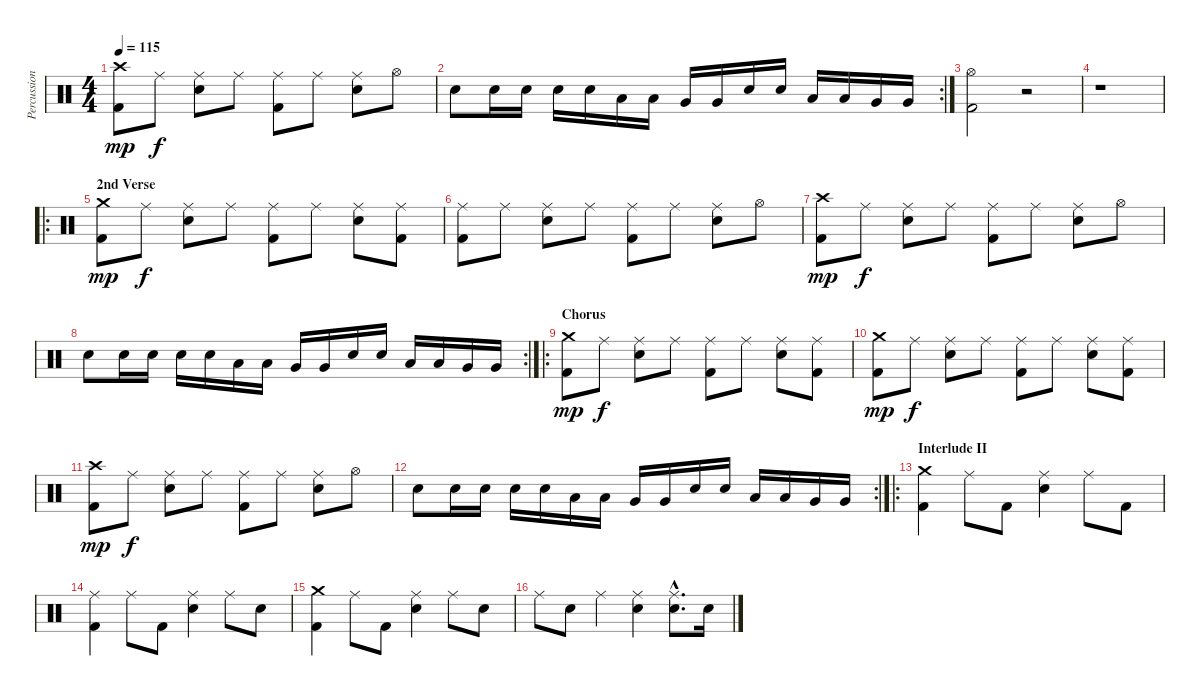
\track ("Percussion" "Percussion") {instrument percussion}
\staff {score}
\articulation defaults
\ts (4 4)
\tempo 115
\clef neutral
\ks c
("Kick (hit) 2" "Crash high (hit)").8{dy mp} "Ride (middle)".8{dy f} ("Electric Snare (hit)" "Ride (middle)").8 "Ride (middle)".8 ("Kick (hit) 2" "Ride (middle)").8 "Ride (middle)".8 ("Electric Snare (hit)" "Ride (middle)").8 "Hi-Hat (open)".8 |
\rc 2 "Electric Snare (hit)".8 "Electric Snare (hit)".16 "Electric Snare (hit)".16 "Electric Snare (hit)".16 "Electric Snare (hit)".16 "Low Tom (hit)".16 "Low Tom (hit)".16 "Very Low Tom (hit)".16 "Very Low Tom (hit)".16 "Electric Snare (hit)".16 "Electric Snare (hit)".16 "Low Tom (hit)".16 "Low Tom (hit)".16 "Very Low Tom (hit)".16 "Very Low Tom (hit)".16
|
("Kick (hit) 2" "Hi-Hat (open)").2 r.2 |
r.1 |
\ro
\section ("" "2nd Verse")
("Kick (hit) 2" "Crash medium (hit)").8{dy mp} "Ride (middle)".8{dy f} ("Electric Snare (hit)" "Ride (middle)").8 "Ride (middle)".8 ("Kick (hit) 2" "Ride (middle)").8 "Ride (middle)".8 ("Electric Snare (hit)" "Ride (middle)").8 ("Kick (hit) 2" "Ride (middle)").8 |
("Kick (hit) 2" "Ride (middle)").8 "Ride (middle)".8 ("Electric Snare (hit)" "Ride (middle)").8 "Ride (middle)".8 ("Kick (hit) 2" "Ride (middle)").8 "Ride (middle)".8 ("Electric Snare (hit)" "Ride (middle)").8 "Hi-Hat (open)".8 |
("Kick (hit) 2" "Crash high (hit)").8{dy mp} "Ride (middle)".8{dy f} ("Electric Snare (hit)" "Ride (middle)").8 "Ride (middle)".8 ("Kick (hit) 2" "Ride (middle)").8 "Ride (middle)".8 ("Electric Snare (hit)" "Ride (middle)").8 "Hi-Hat (open)".8 |
\rc 2 "Electric Snare (hit)".8 "Electric Snare (hit)".16 "Electric Snare (hit)".16 "Electric Snare (hit)".16 "Electric Snare (hit)".16 "Low Tom (hit)".16 "Low Tom (hit)".16 "Very Low Tom (hit)".16 "Very Low Tom (hit)".16 "Electric Snare (hit)".16 "Electric Snare (hit)".16 "Low Tom (hit)".16 "Low Tom (hit)".16 "Very Low Tom (hit)".16 "Very Low Tom (hit)".16
|
\ro
\section ("" "Chorus")
("Kick (hit) 2" "Crash medium (hit)").8{dy mp} "Ride (middle)".8{dy f} ("Electric Snare (hit)" "Ride (middle)").8 "Ride (middle)".8 ("Kick (hit) 2" "Ride (middle)").8 "Ride (middle)".8 ("Electric Snare (hit)" "Ride (middle)").8 ("Kick (hit) 2" "Ride (middle)").8 |
("Kick (hit) 2" "Crash medium (hit)").8{dy mp} "Ride (middle)".8{dy f} ("Electric Snare (hit)" "Ride (middle)").8 "Ride (middle)".8 ("Kick (hit) 2" "Ride (middle)").8 "Ride (middle)".8 ("Electric Snare (hit)" "Ride (middle)").8 ("Kick (hit) 2" "Ride (middle)").8 |
("Kick (hit) 2" "Crash high (hit)").8{dy mp} "Ride (middle)".8{dy f} ("Electric Snare (hit)" "Ride (middle)").8 "Ride (middle)".8 ("Kick (hit) 2" "Ride (middle)").8 "Ride (middle)".8 ("Electric Snare (hit)" "Ride (middle)").8 "Hi-Hat (open)".8 |
\rc 2 "Electric Snare (hit)".8 "Electric Snare (hit)".16 "Electric Snare (hit)".16 "Electric Snare (hit)".16 "Electric Snare (hit)".16 "Low Tom (hit)".16 "Low Tom (hit)".16 "Very Low Tom (hit)".16 "Very Low Tom (hit)".16 "Electric Snare (hit)".16 "Electric Snare (hit)".16 "Low Tom (hit)".16 "Low Tom (hit)".16 "Very Low Tom (hit)".16 "Very Low Tom (hit)".16
|
\ro
\section ("" "Interlude II")
("Kick (hit) 2" "Crash medium (hit)").4 "Ride (middle)".8 "Kick (hit) 2".8 ("Electric Snare (hit)" "Ride (middle)").4 "Ride (middle)".8 "Kick (hit) 2".8 |
("Kick (hit) 2" "Ride (middle)").4 "Ride (middle)".8 "Kick (hit) 2".8 ("Electric Snare (hit)" "Ride (middle)").4 "Ride (middle)".8 "Electric Snare (hit)".8 |
("Kick (hit) 2" "Crash medium (hit)").4 "Ride (middle)".8 "Kick (hit) 2".8 ("Electric Snare (hit)" "Ride (middle)").4 "Ride (middle)".8 "Electric Snare (hit)".8 |
"Ride (middle)".8 "Electric Snare (hit)".8 "Ride (middle)".4 ("Electric Snare (hit)" "Ride (middle)").4 ("Electric Snare (hit)"{hac} "Ride (middle)"{hac}).8{d} "Electric Snare (hit)".16
